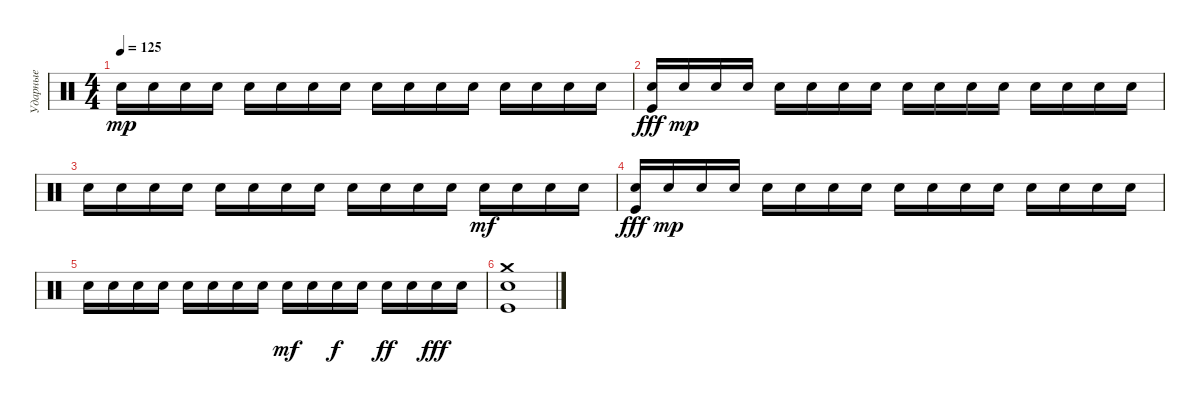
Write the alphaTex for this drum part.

\track ("Ударные" "Ударные") {instrument percussion}
\staff {score}
\articulation defaults
\ts (4 4)
\tempo 125
\clef neutral
\ks c "Electric Snare (hit)".16{dy mp} "Electric Snare (hit)".16 "Electric Snare (hit)".16 "Electric Snare (hit)".16 "Electric Snare (hit)".16 "Electric Snare (hit)".16 "Electric Snare (hit)".16 "Electric Snare (hit)".16 "Electric Snare (hit)".16 "Electric Snare (hit)".16 "Electric Snare (hit)".16 "Electric Snare (hit)".16 "Electric Snare (hit)".16 "Electric Snare (hit)".16 "Electric Snare (hit)".16 "Electric Snare (hit)".16
|
("Electric Snare (hit)" "Kick (hit)").16{dy fff} "Electric Snare (hit)".16{dy mp} "Electric Snare (hit)".16 "Electric Snare (hit)".16 "Electric Snare (hit)".16 "Electric Snare (hit)".16 "Electric Snare (hit)".16 "Electric Snare (hit)".16 "Electric Snare (hit)".16 "Electric Snare (hit)".16 "Electric Snare (hit)".16 "Electric Snare (hit)".16 "Electric Snare (hit)".16 "Electric Snare (hit)".16 "Electric Snare (hit)".16 "Electric Snare (hit)".16 |
"Electric Snare (hit)".16 "Electric Snare (hit)".16 "Electric Snare (hit)".16 "Electric Snare (hit)".16 "Electric Snare (hit)".16 "Electric Snare (hit)".16 "Electric Snare (hit)".16 "Electric Snare (hit)".16 "Electric Snare (hit)".16 "Electric Snare (hit)".16 "Electric Snare (hit)".16 "Electric Snare (hit)".16 "Electric Snare (hit)".16{dy mf} "Electric Snare (hit)".16 "Electric Snare (hit)".16 "Electric Snare (hit)".16 |
("Electric Snare (hit)" "Kick (hit)").16{dy fff} "Electric Snare (hit)".16{dy mp} "Electric Snare (hit)".16 "Electric Snare (hit)".16 "Electric Snare (hit)".16 "Electric Snare (hit)".16 "Electric Snare (hit)".16 "Electric Snare (hit)".16 "Electric Snare (hit)".16 "Electric Snare (hit)".16 "Electric Snare (hit)".16 "Electric Snare (hit)".16 "Electric Snare (hit)".16 "Electric Snare (hit)".16 "Electric Snare (hit)".16 "Electric Snare (hit)".16 |
"Electric Snare (hit)".16 "Electric Snare (hit)".16 "Electric Snare (hit)".16 "Electric Snare (hit)".16 "Electric Snare (hit)".16 "Electric Snare (hit)".16 "Electric Snare (hit)".16 "Electric Snare (hit)".16 "Electric Snare (hit)".16{dy mf} "Electric Snare (hit)".16 "Electric Snare (hit)".16{dy f} "Electric Snare (hit)".16 "Electric Snare (hit)".16{dy ff} "Electric Snare (hit)".16 "Electric Snare (hit)".16{dy fff} "Electric Snare (hit)".16 |
("Electric Snare (hit)" "Kick (hit)" "Crash medium (hit)").1
